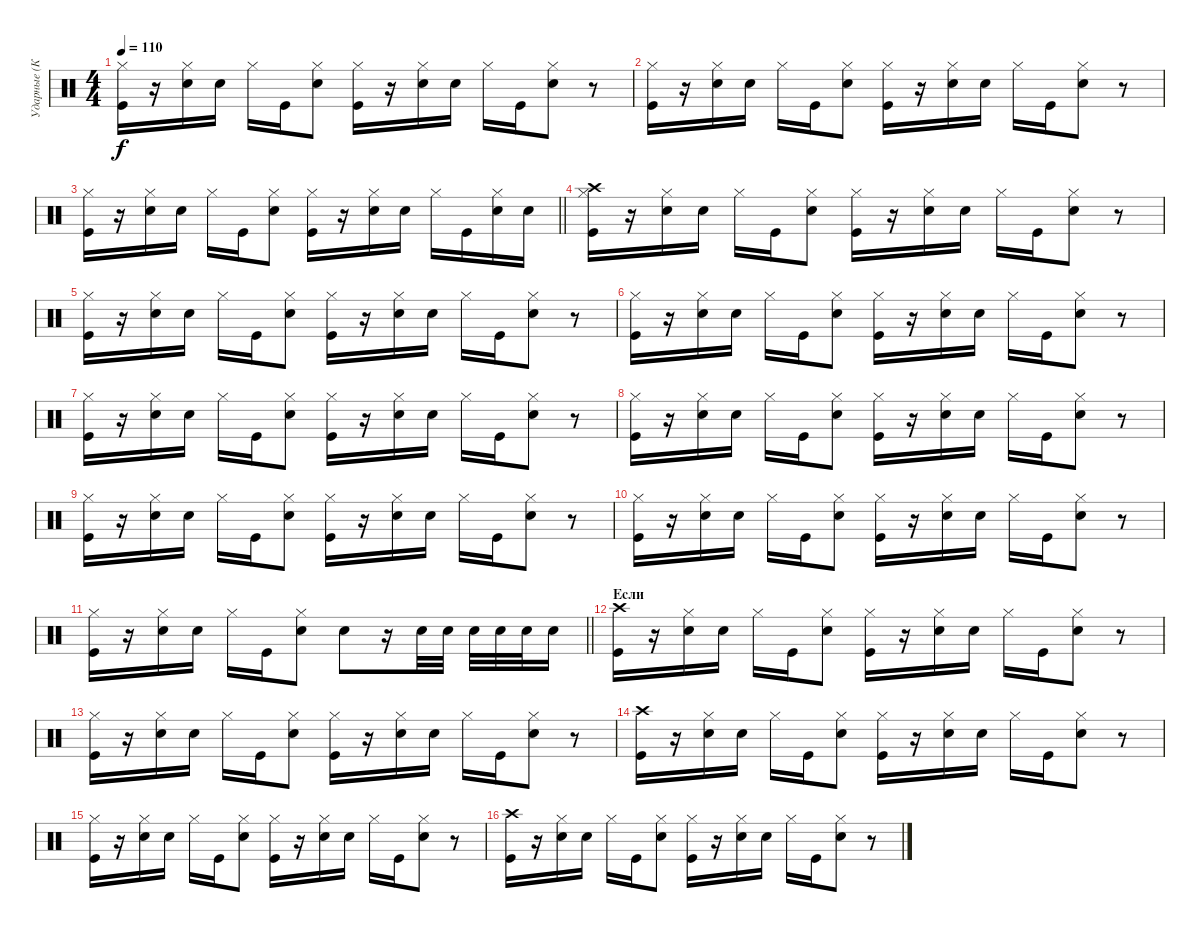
\track ("Ударные (Коля Лысов" "Ударные (К") {instrument percussion}
\staff {score}
\articulation defaults
\ts (4 4)
\tempo 110
\clef neutral
\ks c
("Kick (hit)" "Hi-Hat (closed)").16{dy f} r.16 ("Snare (hit) 2" "Hi-Hat (closed)").16 "Snare (hit) 2".16 "Hi-Hat (closed)".16 "Kick (hit)".16 ("Snare (hit) 2" "Hi-Hat (closed)").8 ("Kick (hit)" "Hi-Hat (closed)").16 r.16 ("Snare (hit) 2" "Hi-Hat (closed)").16 "Snare (hit) 2".16 "Hi-Hat (closed)".16 "Kick (hit)".16 ("Snare (hit) 2" "Hi-Hat (closed)").8 r.8 |
("Kick (hit)" "Hi-Hat (closed)").16 r.16 ("Snare (hit) 2" "Hi-Hat (closed)").16 "Snare (hit) 2".16 "Hi-Hat (closed)".16 "Kick (hit)".16 ("Snare (hit) 2" "Hi-Hat (closed)").8 ("Kick (hit)" "Hi-Hat (closed)").16 r.16 ("Snare (hit) 2" "Hi-Hat (closed)").16 "Snare (hit) 2".16 "Hi-Hat (closed)".16 "Kick (hit)".16 ("Snare (hit) 2" "Hi-Hat (closed)").8 r.8 |
\barLineRight lightlight
("Kick (hit)" "Hi-Hat (closed)").16 r.16 ("Snare (hit) 2" "Hi-Hat (closed)").16 "Snare (hit) 2".16 "Hi-Hat (closed)".16 "Kick (hit)".16 ("Snare (hit) 2" "Hi-Hat (closed)").8 ("Kick (hit)" "Hi-Hat (closed)").16 r.16 ("Snare (hit) 2" "Hi-Hat (closed)").16 "Snare (hit) 2".16 "Hi-Hat (closed)".16 "Kick (hit)".16 ("Snare (hit) 2" "Hi-Hat (closed)").16 "Snare (hit) 2".16 |
("Kick (hit)" "Hi-Hat (closed)" "Crash high (hit)").16 r.16 ("Snare (hit) 2" "Hi-Hat (closed)").16 "Snare (hit) 2".16 "Hi-Hat (closed)".16 "Kick (hit)".16 ("Snare (hit) 2" "Hi-Hat (closed)").8 ("Kick (hit)" "Hi-Hat (closed)").16 r.16 ("Snare (hit) 2" "Hi-Hat (closed)").16 "Snare (hit) 2".16 "Hi-Hat (closed)".16 "Kick (hit)".16 ("Snare (hit) 2" "Hi-Hat (closed)").8 r.8 |
("Kick (hit)" "Hi-Hat (closed)").16 r.16 ("Snare (hit) 2" "Hi-Hat (closed)").16 "Snare (hit) 2".16 "Hi-Hat (closed)".16 "Kick (hit)".16 ("Snare (hit) 2" "Hi-Hat (closed)").8 ("Kick (hit)" "Hi-Hat (closed)").16 r.16 ("Snare (hit) 2" "Hi-Hat (closed)").16 "Snare (hit) 2".16 "Hi-Hat (closed)".16 "Kick (hit)".16 ("Snare (hit) 2" "Hi-Hat (closed)").8 r.8 |
("Kick (hit)" "Hi-Hat (closed)").16 r.16 ("Snare (hit) 2" "Hi-Hat (closed)").16 "Snare (hit) 2".16 "Hi-Hat (closed)".16 "Kick (hit)".16 ("Snare (hit) 2" "Hi-Hat (closed)").8 ("Kick (hit)" "Hi-Hat (closed)").16 r.16 ("Snare (hit) 2" "Hi-Hat (closed)").16 "Snare (hit) 2".16 "Hi-Hat (closed)".16 "Kick (hit)".16 ("Snare (hit) 2" "Hi-Hat (closed)").8 r.8 |
("Kick (hit)" "Hi-Hat (closed)").16 r.16 ("Snare (hit) 2" "Hi-Hat (closed)").16 "Snare (hit) 2".16 "Hi-Hat (closed)".16 "Kick (hit)".16 ("Snare (hit) 2" "Hi-Hat (closed)").8 ("Kick (hit)" "Hi-Hat (closed)").16 r.16 ("Snare (hit) 2" "Hi-Hat (closed)").16 "Snare (hit) 2".16 "Hi-Hat (closed)".16 "Kick (hit)".16 ("Snare (hit) 2" "Hi-Hat (closed)").8 r.8 |
("Kick (hit)" "Hi-Hat (closed)").16 r.16 ("Snare (hit) 2" "Hi-Hat (closed)").16 "Snare (hit) 2".16 "Hi-Hat (closed)".16 "Kick (hit)".16 ("Snare (hit) 2" "Hi-Hat (closed)").8 ("Kick (hit)" "Hi-Hat (closed)").16 r.16 ("Snare (hit) 2" "Hi-Hat (closed)").16 "Snare (hit) 2".16 "Hi-Hat (closed)".16 "Kick (hit)".16 ("Snare (hit) 2" "Hi-Hat (closed)").8 r.8 |
("Kick (hit)" "Hi-Hat (closed)").16 r.16 ("Snare (hit) 2" "Hi-Hat (closed)").16 "Snare (hit) 2".16 "Hi-Hat (closed)".16 "Kick (hit)".16 ("Snare (hit) 2" "Hi-Hat (closed)").8 ("Kick (hit)" "Hi-Hat (closed)").16 r.16 ("Snare (hit) 2" "Hi-Hat (closed)").16 "Snare (hit) 2".16 "Hi-Hat (closed)".16 "Kick (hit)".16 ("Snare (hit) 2" "Hi-Hat (closed)").8 r.8 |
("Kick (hit)" "Hi-Hat (closed)").16 r.16 ("Snare (hit) 2" "Hi-Hat (closed)").16 "Snare (hit) 2".16 "Hi-Hat (closed)".16 "Kick (hit)".16 ("Snare (hit) 2" "Hi-Hat (closed)").8 ("Kick (hit)" "Hi-Hat (closed)").16 r.16 ("Snare (hit) 2" "Hi-Hat (closed)").16 "Snare (hit) 2".16 "Hi-Hat (closed)".16 "Kick (hit)".16 ("Snare (hit) 2" "Hi-Hat (closed)").8 r.8 |
\barLineRight lightlight
("Kick (hit)" "Hi-Hat (closed)").16 r.16 ("Snare (hit) 2" "Hi-Hat (closed)").16 "Snare (hit) 2".16 "Hi-Hat (closed)".16 "Kick (hit)".16 ("Snare (hit) 2" "Hi-Hat (closed)").8 "Snare (hit) 2".8 r.16 "Snare (hit) 2".32 "Snare (hit) 2".32 "Snare (hit) 2".32 "Snare (hit) 2".32 "Snare (hit) 2".32 "Snare (hit) 2".16 |
\section ("" "Если")
("Kick (hit)" "Crash high (hit)").16 r.16 ("Snare (hit) 2" "Hi-Hat (closed)").16 "Snare (hit) 2".16 "Hi-Hat (closed)".16 "Kick (hit)".16 ("Snare (hit) 2" "Hi-Hat (closed)").8 ("Kick (hit)" "Hi-Hat (closed)").16 r.16 ("Snare (hit) 2" "Hi-Hat (closed)").16 "Snare (hit) 2".16 "Hi-Hat (closed)".16 "Kick (hit)".16 ("Snare (hit) 2" "Hi-Hat (closed)").8 r.8 |
("Kick (hit)" "Hi-Hat (closed)").16 r.16 ("Snare (hit) 2" "Hi-Hat (closed)").16 "Snare (hit) 2".16 "Hi-Hat (closed)".16 "Kick (hit)".16 ("Snare (hit) 2" "Hi-Hat (closed)").8 ("Kick (hit)" "Hi-Hat (closed)").16 r.16 ("Snare (hit) 2" "Hi-Hat (closed)").16 "Snare (hit) 2".16 "Hi-Hat (closed)".16 "Kick (hit)".16 ("Snare (hit) 2" "Hi-Hat (closed)").8 r.8 |
("Kick (hit)" "Crash high (hit)").16 r.16 ("Snare (hit) 2" "Hi-Hat (closed)").16 "Snare (hit) 2".16 "Hi-Hat (closed)".16 "Kick (hit)".16 ("Snare (hit) 2" "Hi-Hat (closed)").8 ("Kick (hit)" "Hi-Hat (closed)").16 r.16 ("Snare (hit) 2" "Hi-Hat (closed)").16 "Snare (hit) 2".16 "Hi-Hat (closed)".16 "Kick (hit)".16 ("Snare (hit) 2" "Hi-Hat (closed)").8 r.8 |
("Kick (hit)" "Hi-Hat (closed)").16 r.16 ("Snare (hit) 2" "Hi-Hat (closed)").16 "Snare (hit) 2".16 "Hi-Hat (closed)".16 "Kick (hit)".16 ("Snare (hit) 2" "Hi-Hat (closed)").8 ("Kick (hit)" "Hi-Hat (closed)").16 r.16 ("Snare (hit) 2" "Hi-Hat (closed)").16 "Snare (hit) 2".16 "Hi-Hat (closed)".16 "Kick (hit)".16 ("Snare (hit) 2" "Hi-Hat (closed)").8 r.8 |
("Kick (hit)" "Crash high (hit)").16 r.16 ("Snare (hit) 2" "Hi-Hat (closed)").16 "Snare (hit) 2".16 "Hi-Hat (closed)".16 "Kick (hit)".16 ("Snare (hit) 2" "Hi-Hat (closed)").8 ("Kick (hit)" "Hi-Hat (closed)").16 r.16 ("Snare (hit) 2" "Hi-Hat (closed)").16 "Snare (hit) 2".16 "Hi-Hat (closed)".16 "Kick (hit)".16 ("Snare (hit) 2" "Hi-Hat (closed)").8 r.8
